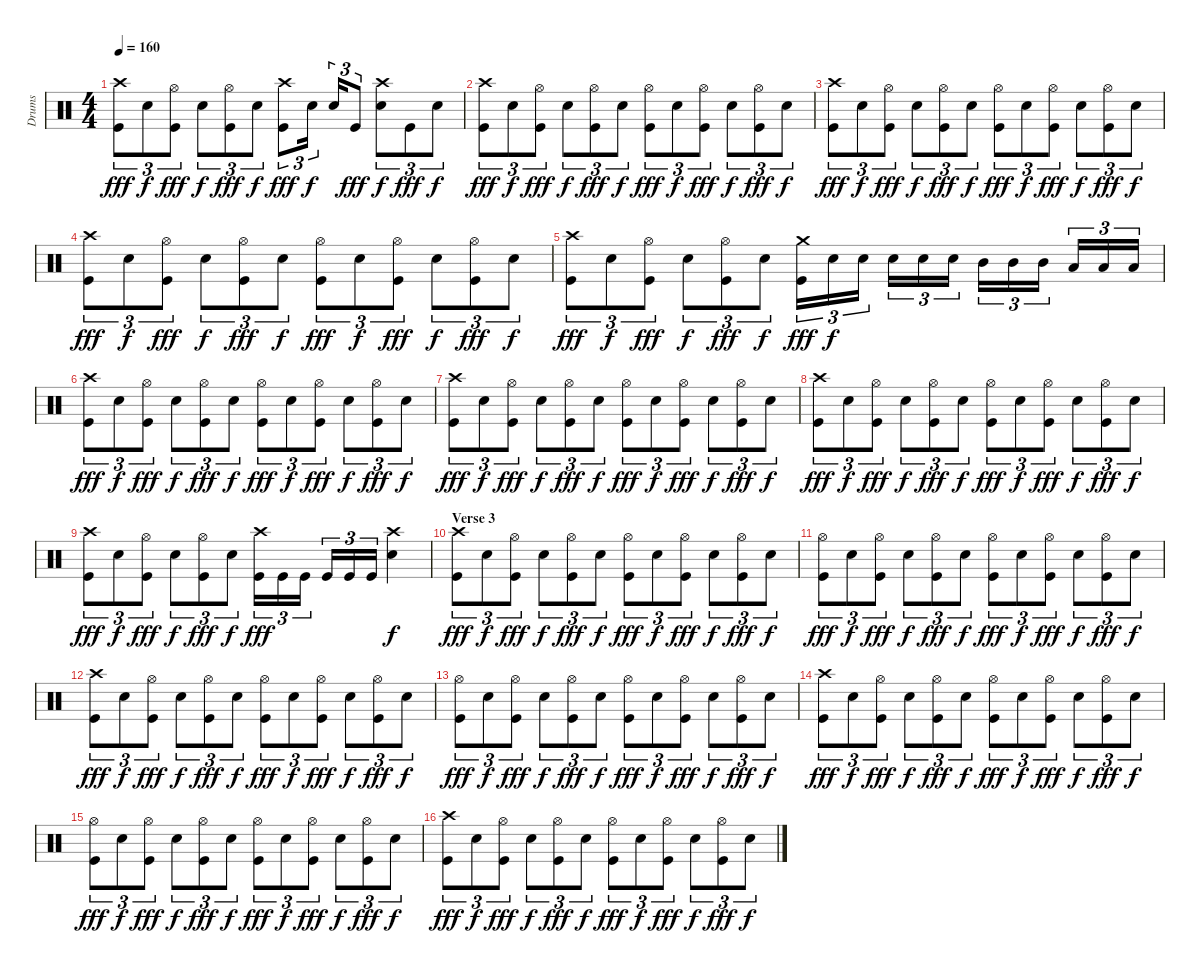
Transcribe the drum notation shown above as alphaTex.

\track ("Drums" "Drums") {instrument percussion}
\staff {score}
\articulation defaults
\ts (4 4)
\tempo 160
\clef neutral
\ks c
("Crash high (hit)" "Kick (hit)").8{tu (3 2) dy fff} "Electric Snare (hit)".8{tu (3 2) dy f} ("Hi-Hat (open)" "Kick (hit)").8{tu (3 2) dy fff} "Electric Snare (hit)".8{tu (3 2) dy f} ("Hi-Hat (open)" "Kick (hit)").8{tu (3 2) dy fff} "Electric Snare (hit)".8{tu (3 2) dy f} ("Crash high (hit)" "Kick (hit)").8{tu (3 2) dy fff} "Electric Snare (hit)".16{tu (3 2) dy f} "Electric Snare (hit)".16{tu (3 2)} "Kick (hit)".8{tu (3 2) dy fff} ("Crash high (hit)" "Electric Snare (hit)").8{tu (3 2) dy f} "Kick (hit)".8{tu (3 2) dy fff} "Electric Snare (hit)".8{tu (3 2) dy f} |
("Crash high (hit)" "Kick (hit)").8{tu (3 2) dy fff} "Electric Snare (hit)".8{tu (3 2) dy f} ("Hi-Hat (open)" "Kick (hit)").8{tu (3 2) dy fff} "Electric Snare (hit)".8{tu (3 2) dy f} ("Hi-Hat (open)" "Kick (hit)").8{tu (3 2) dy fff} "Electric Snare (hit)".8{tu (3 2) dy f} ("Hi-Hat (open)" "Kick (hit)").8{tu (3 2) dy fff} "Electric Snare (hit)".8{tu (3 2) dy f} ("Hi-Hat (open)" "Kick (hit)").8{tu (3 2) dy fff} "Electric Snare (hit)".8{tu (3 2) dy f} ("Hi-Hat (open)" "Kick (hit)").8{tu (3 2) dy fff} "Electric Snare (hit)".8{tu (3 2) dy f} |
("Crash high (hit)" "Kick (hit)").8{tu (3 2) dy fff} "Electric Snare (hit)".8{tu (3 2) dy f} ("Hi-Hat (open)" "Kick (hit)").8{tu (3 2) dy fff} "Electric Snare (hit)".8{tu (3 2) dy f} ("Hi-Hat (open)" "Kick (hit)").8{tu (3 2) dy fff} "Electric Snare (hit)".8{tu (3 2) dy f} ("Hi-Hat (open)" "Kick (hit)").8{tu (3 2) dy fff} "Electric Snare (hit)".8{tu (3 2) dy f} ("Hi-Hat (open)" "Kick (hit)").8{tu (3 2) dy fff} "Electric Snare (hit)".8{tu (3 2) dy f} ("Hi-Hat (open)" "Kick (hit)").8{tu (3 2) dy fff} "Electric Snare (hit)".8{tu (3 2) dy f} |
("Crash high (hit)" "Kick (hit)").8{tu (3 2) dy fff} "Electric Snare (hit)".8{tu (3 2) dy f} ("Hi-Hat (open)" "Kick (hit)").8{tu (3 2) dy fff} "Electric Snare (hit)".8{tu (3 2) dy f} ("Hi-Hat (open)" "Kick (hit)").8{tu (3 2) dy fff} "Electric Snare (hit)".8{tu (3 2) dy f} ("Hi-Hat (open)" "Kick (hit)").8{tu (3 2) dy fff} "Electric Snare (hit)".8{tu (3 2) dy f} ("Hi-Hat (open)" "Kick (hit)").8{tu (3 2) dy fff} "Electric Snare (hit)".8{tu (3 2) dy f} ("Hi-Hat (open)" "Kick (hit)").8{tu (3 2) dy fff} "Electric Snare (hit)".8{tu (3 2) dy f} |
("Crash high (hit)" "Kick (hit)").8{tu (3 2) dy fff} "Electric Snare (hit)".8{tu (3 2) dy f} ("Hi-Hat (open)" "Kick (hit)").8{tu (3 2) dy fff} "Electric Snare (hit)".8{tu (3 2) dy f} ("Hi-Hat (open)" "Kick (hit)").8{tu (3 2) dy fff} "Electric Snare (hit)".8{tu (3 2) dy f} ("Crash medium (hit)" "Kick (hit)").16{tu (3 2) dy fff} "Electric Snare (hit)".16{tu (3 2) dy f} "Electric Snare (hit)".16{tu (3 2)} "Electric Snare (hit)".16{tu (3 2)} "Electric Snare (hit)".16{tu (3 2)} "Electric Snare (hit)".16{tu (3 2)} "Mid Tom (hit)".16{tu (3 2)} "Mid Tom (hit)".16{tu (3 2)} "Mid Tom (hit)".16{tu (3 2)} "Low Tom (hit)".16{tu (3 2)} "Low Tom (hit)".16{tu (3 2)} "Low Tom (hit)".16{tu (3 2)} |
("Crash high (hit)" "Kick (hit)").8{tu (3 2) dy fff} "Electric Snare (hit)".8{tu (3 2) dy f} ("Hi-Hat (open)" "Kick (hit)").8{tu (3 2) dy fff} "Electric Snare (hit)".8{tu (3 2) dy f} ("Hi-Hat (open)" "Kick (hit)").8{tu (3 2) dy fff} "Electric Snare (hit)".8{tu (3 2) dy f} ("Hi-Hat (open)" "Kick (hit)").8{tu (3 2) dy fff} "Electric Snare (hit)".8{tu (3 2) dy f} ("Hi-Hat (open)" "Kick (hit)").8{tu (3 2) dy fff} "Electric Snare (hit)".8{tu (3 2) dy f} ("Hi-Hat (open)" "Kick (hit)").8{tu (3 2) dy fff} "Electric Snare (hit)".8{tu (3 2) dy f} |
("Crash high (hit)" "Kick (hit)").8{tu (3 2) dy fff} "Electric Snare (hit)".8{tu (3 2) dy f} ("Hi-Hat (open)" "Kick (hit)").8{tu (3 2) dy fff} "Electric Snare (hit)".8{tu (3 2) dy f} ("Hi-Hat (open)" "Kick (hit)").8{tu (3 2) dy fff} "Electric Snare (hit)".8{tu (3 2) dy f} ("Hi-Hat (open)" "Kick (hit)").8{tu (3 2) dy fff} "Electric Snare (hit)".8{tu (3 2) dy f} ("Hi-Hat (open)" "Kick (hit)").8{tu (3 2) dy fff} "Electric Snare (hit)".8{tu (3 2) dy f} ("Hi-Hat (open)" "Kick (hit)").8{tu (3 2) dy fff} "Electric Snare (hit)".8{tu (3 2) dy f} |
("Crash high (hit)" "Kick (hit)").8{tu (3 2) dy fff} "Electric Snare (hit)".8{tu (3 2) dy f} ("Hi-Hat (open)" "Kick (hit)").8{tu (3 2) dy fff} "Electric Snare (hit)".8{tu (3 2) dy f} ("Hi-Hat (open)" "Kick (hit)").8{tu (3 2) dy fff} "Electric Snare (hit)".8{tu (3 2) dy f} ("Hi-Hat (open)" "Kick (hit)").8{tu (3 2) dy fff} "Electric Snare (hit)".8{tu (3 2) dy f} ("Hi-Hat (open)" "Kick (hit)").8{tu (3 2) dy fff} "Electric Snare (hit)".8{tu (3 2) dy f} ("Hi-Hat (open)" "Kick (hit)").8{tu (3 2) dy fff} "Electric Snare (hit)".8{tu (3 2) dy f} |
("Crash high (hit)" "Kick (hit)").8{tu (3 2) dy fff} "Electric Snare (hit)".8{tu (3 2) dy f} ("Hi-Hat (open)" "Kick (hit)").8{tu (3 2) dy fff} "Electric Snare (hit)".8{tu (3 2) dy f} ("Hi-Hat (open)" "Kick (hit)").8{tu (3 2) dy fff} "Electric Snare (hit)".8{tu (3 2) dy f} ("Crash high (hit)" "Kick (hit)").16{tu (3 2) dy fff} "Kick (hit)".16{tu (3 2)} "Kick (hit)".16{tu (3 2)} "Kick (hit)".16{tu (3 2)} "Kick (hit)".16{tu (3 2)} "Kick (hit)".16{tu (3 2)} ("Crash high (hit)" "Electric Snare (hit)").4{dy f} |
\section ("" "Verse 3")
("Crash high (hit)" "Kick (hit)").8{tu (3 2) dy fff} "Electric Snare (hit)".8{tu (3 2) dy f} ("Hi-Hat (open)" "Kick (hit)").8{tu (3 2) dy fff} "Electric Snare (hit)".8{tu (3 2) dy f} ("Hi-Hat (open)" "Kick (hit)").8{tu (3 2) dy fff} "Electric Snare (hit)".8{tu (3 2) dy f} ("Hi-Hat (open)" "Kick (hit)").8{tu (3 2) dy fff} "Electric Snare (hit)".8{tu (3 2) dy f} ("Hi-Hat (open)" "Kick (hit)").8{tu (3 2) dy fff} "Electric Snare (hit)".8{tu (3 2) dy f} ("Hi-Hat (open)" "Kick (hit)").8{tu (3 2) dy fff} "Electric Snare (hit)".8{tu (3 2) dy f} |
("Hi-Hat (open)" "Kick (hit)").8{tu (3 2) dy fff} "Electric Snare (hit)".8{tu (3 2) dy f} ("Hi-Hat (open)" "Kick (hit)").8{tu (3 2) dy fff} "Electric Snare (hit)".8{tu (3 2) dy f} ("Hi-Hat (open)" "Kick (hit)").8{tu (3 2) dy fff} "Electric Snare (hit)".8{tu (3 2) dy f} ("Hi-Hat (open)" "Kick (hit)").8{tu (3 2) dy fff} "Electric Snare (hit)".8{tu (3 2) dy f} ("Hi-Hat (open)" "Kick (hit)").8{tu (3 2) dy fff} "Electric Snare (hit)".8{tu (3 2) dy f} ("Hi-Hat (open)" "Kick (hit)").8{tu (3 2) dy fff} "Electric Snare (hit)".8{tu (3 2) dy f} |
("Crash high (hit)" "Kick (hit)").8{tu (3 2) dy fff} "Electric Snare (hit)".8{tu (3 2) dy f} ("Hi-Hat (open)" "Kick (hit)").8{tu (3 2) dy fff} "Electric Snare (hit)".8{tu (3 2) dy f} ("Hi-Hat (open)" "Kick (hit)").8{tu (3 2) dy fff} "Electric Snare (hit)".8{tu (3 2) dy f} ("Hi-Hat (open)" "Kick (hit)").8{tu (3 2) dy fff} "Electric Snare (hit)".8{tu (3 2) dy f} ("Hi-Hat (open)" "Kick (hit)").8{tu (3 2) dy fff} "Electric Snare (hit)".8{tu (3 2) dy f} ("Hi-Hat (open)" "Kick (hit)").8{tu (3 2) dy fff} "Electric Snare (hit)".8{tu (3 2) dy f} |
("Hi-Hat (open)" "Kick (hit)").8{tu (3 2) dy fff} "Electric Snare (hit)".8{tu (3 2) dy f} ("Hi-Hat (open)" "Kick (hit)").8{tu (3 2) dy fff} "Electric Snare (hit)".8{tu (3 2) dy f} ("Hi-Hat (open)" "Kick (hit)").8{tu (3 2) dy fff} "Electric Snare (hit)".8{tu (3 2) dy f} ("Hi-Hat (open)" "Kick (hit)").8{tu (3 2) dy fff} "Electric Snare (hit)".8{tu (3 2) dy f} ("Hi-Hat (open)" "Kick (hit)").8{tu (3 2) dy fff} "Electric Snare (hit)".8{tu (3 2) dy f} ("Hi-Hat (open)" "Kick (hit)").8{tu (3 2) dy fff} "Electric Snare (hit)".8{tu (3 2) dy f} |
("Crash high (hit)" "Kick (hit)").8{tu (3 2) dy fff} "Electric Snare (hit)".8{tu (3 2) dy f} ("Hi-Hat (open)" "Kick (hit)").8{tu (3 2) dy fff} "Electric Snare (hit)".8{tu (3 2) dy f} ("Hi-Hat (open)" "Kick (hit)").8{tu (3 2) dy fff} "Electric Snare (hit)".8{tu (3 2) dy f} ("Hi-Hat (open)" "Kick (hit)").8{tu (3 2) dy fff} "Electric Snare (hit)".8{tu (3 2) dy f} ("Hi-Hat (open)" "Kick (hit)").8{tu (3 2) dy fff} "Electric Snare (hit)".8{tu (3 2) dy f} ("Hi-Hat (open)" "Kick (hit)").8{tu (3 2) dy fff} "Electric Snare (hit)".8{tu (3 2) dy f} |
("Hi-Hat (open)" "Kick (hit)").8{tu (3 2) dy fff} "Electric Snare (hit)".8{tu (3 2) dy f} ("Hi-Hat (open)" "Kick (hit)").8{tu (3 2) dy fff} "Electric Snare (hit)".8{tu (3 2) dy f} ("Hi-Hat (open)" "Kick (hit)").8{tu (3 2) dy fff} "Electric Snare (hit)".8{tu (3 2) dy f} ("Hi-Hat (open)" "Kick (hit)").8{tu (3 2) dy fff} "Electric Snare (hit)".8{tu (3 2) dy f} ("Hi-Hat (open)" "Kick (hit)").8{tu (3 2) dy fff} "Electric Snare (hit)".8{tu (3 2) dy f} ("Hi-Hat (open)" "Kick (hit)").8{tu (3 2) dy fff} "Electric Snare (hit)".8{tu (3 2) dy f} |
("Crash high (hit)" "Kick (hit)").8{tu (3 2) dy fff} "Electric Snare (hit)".8{tu (3 2) dy f} ("Hi-Hat (open)" "Kick (hit)").8{tu (3 2) dy fff} "Electric Snare (hit)".8{tu (3 2) dy f} ("Hi-Hat (open)" "Kick (hit)").8{tu (3 2) dy fff} "Electric Snare (hit)".8{tu (3 2) dy f} ("Hi-Hat (open)" "Kick (hit)").8{tu (3 2) dy fff} "Electric Snare (hit)".8{tu (3 2) dy f} ("Hi-Hat (open)" "Kick (hit)").8{tu (3 2) dy fff} "Electric Snare (hit)".8{tu (3 2) dy f} ("Hi-Hat (open)" "Kick (hit)").8{tu (3 2) dy fff} "Electric Snare (hit)".8{tu (3 2) dy f}
